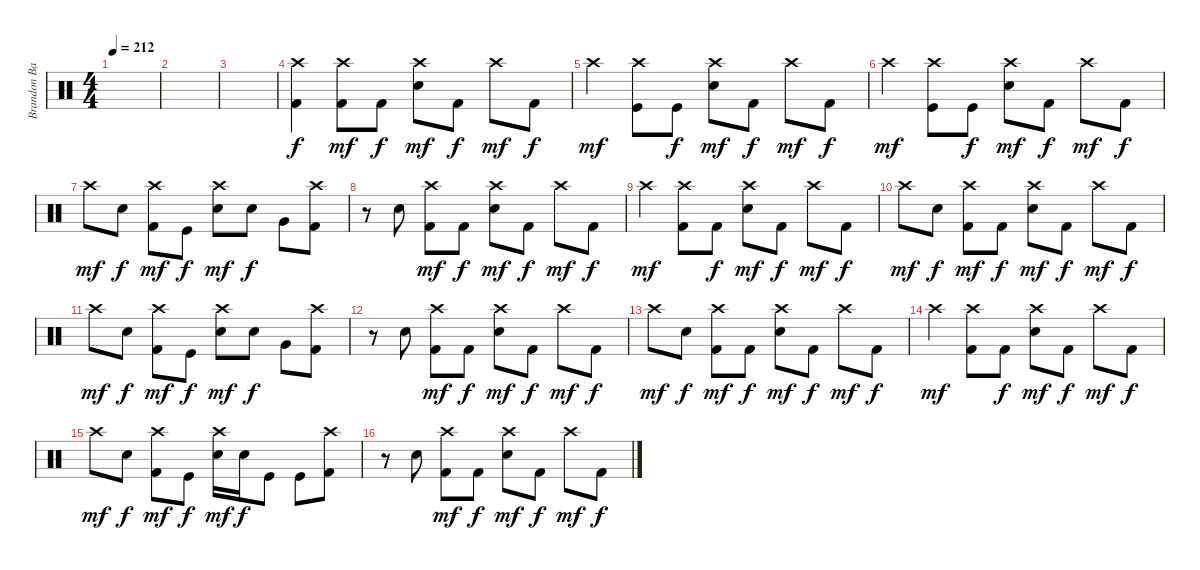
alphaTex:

\track ("Brandon Barnes - Drums" "Brandon Ba") {instrument percussion}
\staff {score}
\articulation defaults
\ts (4 4)
\tempo 212
\clef neutral
\ks c
|
|
|
("Crash high (hit)" "Kick (hit) 2").4 ("Kick (hit) 2" "Crash high (hit)").8{dy mf} "Kick (hit) 2".8{dy f} ("Snare (hit) 2" "Crash high (hit)").8{dy mf} "Kick (hit) 2".8{dy f} "Crash high (hit)".8{dy mf} "Kick (hit) 2".8{dy f} |
"Crash high (hit)".4{dy mf} ("Kick (hit)" "Crash high (hit)").8 "Kick (hit)".8{dy f} ("Snare (hit) 2" "Crash high (hit)").8{dy mf} "Kick (hit) 2".8{dy f} "Crash high (hit)".8{dy mf} "Kick (hit) 2".8{dy f} |
"Crash high (hit)".4{dy mf} ("Kick (hit)" "Crash high (hit)").8 "Kick (hit)".8{dy f} ("Snare (hit) 2" "Crash high (hit)").8{dy mf} "Kick (hit) 2".8{dy f} "Crash high (hit)".8{dy mf} "Kick (hit) 2".8{dy f} |
"Crash high (hit)".8{dy mf} "Snare (hit) 2".8{dy f} ("Kick (hit) 2" "Crash high (hit)").8{dy mf} "Kick (hit)".8{dy f} ("Crash high (hit)" "Snare (hit) 2").8{dy mf} "Snare (hit) 2".8{dy f} "Very Low Tom (hit)".8 ("Crash high (hit)" "Kick (hit) 2").8 |
r.8 "Snare (hit) 2".8 ("Kick (hit) 2" "Crash high (hit)").8{dy mf} "Kick (hit) 2".8{dy f} ("Snare (hit) 2" "Crash high (hit)").8{dy mf} "Kick (hit) 2".8{dy f} "Crash high (hit)".8{dy mf} "Kick (hit) 2".8{dy f} |
"Crash high (hit)".4{dy mf} ("Kick (hit) 2" "Crash high (hit)").8 "Kick (hit) 2".8{dy f} ("Snare (hit) 2" "Crash high (hit)").8{dy mf} "Kick (hit) 2".8{dy f} "Crash high (hit)".8{dy mf} "Kick (hit) 2".8{dy f} |
"Crash high (hit)".8{dy mf} "Snare (hit) 2".8{dy f} ("Kick (hit) 2" "Crash high (hit)").8{dy mf} "Kick (hit) 2".8{dy f} ("Snare (hit) 2" "Crash high (hit)").8{dy mf} "Kick (hit) 2".8{dy f} "Crash high (hit)".8{dy mf} "Kick (hit) 2".8{dy f} |
"Crash high (hit)".8{dy mf} "Snare (hit) 2".8{dy f} ("Kick (hit) 2" "Crash high (hit)").8{dy mf} "Kick (hit)".8{dy f} ("Crash high (hit)" "Snare (hit) 2").8{dy mf} "Snare (hit) 2".8{dy f} "Very Low Tom (hit)".8 ("Crash high (hit)" "Kick (hit) 2").8 |
r.8 "Snare (hit) 2".8 ("Kick (hit) 2" "Crash high (hit)").8{dy mf} "Kick (hit) 2".8{dy f} ("Snare (hit) 2" "Crash high (hit)").8{dy mf} "Kick (hit) 2".8{dy f} "Crash high (hit)".8{dy mf} "Kick (hit) 2".8{dy f} |
"Crash high (hit)".8{dy mf} "Snare (hit) 2".8{dy f} ("Kick (hit) 2" "Crash high (hit)").8{dy mf} "Kick (hit) 2".8{dy f} ("Snare (hit) 2" "Crash high (hit)").8{dy mf} "Kick (hit) 2".8{dy f} "Crash high (hit)".8{dy mf} "Kick (hit) 2".8{dy f} |
"Crash high (hit)".4{dy mf} ("Kick (hit) 2" "Crash high (hit)").8 "Kick (hit) 2".8{dy f} ("Snare (hit) 2" "Crash high (hit)").8{dy mf} "Kick (hit) 2".8{dy f} "Crash high (hit)".8{dy mf} "Kick (hit) 2".8{dy f} |
"Crash high (hit)".8{dy mf} "Snare (hit) 2".8{dy f} ("Kick (hit) 2" "Crash high (hit)").8{dy mf} "Kick (hit)".8{dy f} ("Crash high (hit)" "Snare (hit) 2").16{dy mf} "Snare (hit) 2".16{dy f} "Kick (hit)".8 "Kick (hit)".8 ("Crash high (hit)" "Kick (hit) 2").8 |
r.8 "Snare (hit) 2".8 ("Kick (hit) 2" "Crash high (hit)").8{dy mf} "Kick (hit) 2".8{dy f} ("Snare (hit) 2" "Crash high (hit)").8{dy mf} "Kick (hit) 2".8{dy f} "Crash high (hit)".8{dy mf} "Kick (hit) 2".8{dy f}
